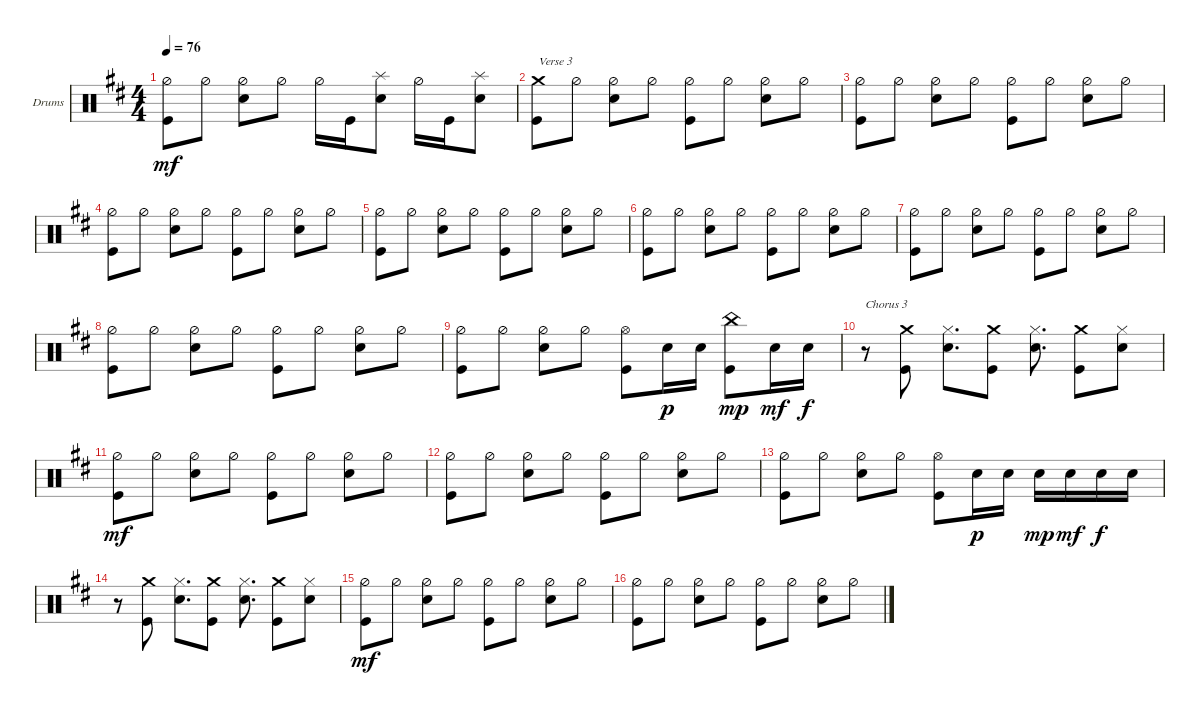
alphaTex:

\defaultSystemsLayout 4
\bracketExtendMode groupsimilarinstruments
\firstSystemTrackNameOrientation horizontal
\otherSystemsTrackNameOrientation horizontal
\track ("Drums" "Drums") {instrument percussion}
\staff {score}
\articulation defaults
\ts (4 4)
\tempo 76
\clef neutral
\ks bminor
("Hi-Hat (half)" "Kick (hit)").8{dy mf} "Hi-Hat (half)".8 ("Hi-Hat (half)" "Snare (hit) 2").8 "Hi-Hat (half)".8 "Hi-Hat (half)".16 "Kick (hit)".16 ("Snare (hit) 2" "Splash (hit)").8 "Hi-Hat (half)".16 "Kick (hit)".16 ("Snare (hit) 2" "Splash (hit)").8 |
("Kick (hit)" "Crash medium (hit)").8{txt "Verse 3"} "Hi-Hat (half)".8 ("Hi-Hat (half)" "Snare (hit) 2").8 "Hi-Hat (half)".8 ("Hi-Hat (half)" "Kick (hit)").8 "Hi-Hat (half)".8 ("Hi-Hat (half)" "Snare (hit) 2").8 "Hi-Hat (half)".8 |
("Hi-Hat (half)" "Kick (hit)").8 "Hi-Hat (half)".8 ("Hi-Hat (half)" "Snare (hit) 2").8 "Hi-Hat (half)".8 ("Hi-Hat (half)" "Kick (hit)").8 "Hi-Hat (half)".8 ("Hi-Hat (half)" "Snare (hit) 2").8 "Hi-Hat (half)".8 |
("Hi-Hat (half)" "Kick (hit)").8 "Hi-Hat (half)".8 ("Hi-Hat (half)" "Snare (hit) 2").8 "Hi-Hat (half)".8 ("Hi-Hat (half)" "Kick (hit)").8 "Hi-Hat (half)".8 ("Hi-Hat (half)" "Snare (hit) 2").8 "Hi-Hat (half)".8 |
("Hi-Hat (half)" "Kick (hit)").8 "Hi-Hat (half)".8 ("Hi-Hat (half)" "Snare (hit) 2").8 "Hi-Hat (half)".8 ("Hi-Hat (half)" "Kick (hit)").8 "Hi-Hat (half)".8 ("Hi-Hat (half)" "Snare (hit) 2").8 "Hi-Hat (half)".8 |
("Hi-Hat (half)" "Kick (hit)").8 "Hi-Hat (half)".8 ("Hi-Hat (half)" "Snare (hit) 2").8 "Hi-Hat (half)".8 ("Hi-Hat (half)" "Kick (hit)").8 "Hi-Hat (half)".8 ("Hi-Hat (half)" "Snare (hit) 2").8 "Hi-Hat (half)".8 |
("Hi-Hat (half)" "Kick (hit)").8 "Hi-Hat (half)".8 ("Hi-Hat (half)" "Snare (hit) 2").8 "Hi-Hat (half)".8 ("Hi-Hat (half)" "Kick (hit)").8 "Hi-Hat (half)".8 ("Hi-Hat (half)" "Snare (hit) 2").8 "Hi-Hat (half)".8 |
("Hi-Hat (half)" "Kick (hit)").8 "Hi-Hat (half)".8 ("Hi-Hat (half)" "Snare (hit) 2").8 "Hi-Hat (half)".8 ("Hi-Hat (half)" "Kick (hit)").8 "Hi-Hat (half)".8 ("Hi-Hat (half)" "Snare (hit) 2").8 "Hi-Hat (half)".8 |
("Hi-Hat (half)" "Kick (hit)").8 "Hi-Hat (half)".8 ("Hi-Hat (half)" "Snare (hit) 2").8 "Hi-Hat (half)".8 ("Hi-Hat (open)" "Kick (hit)").8 "Snare (hit) 2".16{dy p} "Snare (hit) 2".16 ("Kick (hit)" "China (hit)").8{dy mp} "Snare (hit) 2".16{dy mf} "Snare (hit) 2".16{dy f} |
r.8{txt "Chorus 3"} ("Kick (hit)" "Crash medium (hit)").8 ("Snare (hit) 2" "Hi-Hat (closed)").8{d} ("Kick (hit)" "Crash medium (hit)").8 ("Snare (hit) 2" "Hi-Hat (closed)").8{d} ("Kick (hit)" "Crash medium (hit)").8 ("Snare (hit) 2" "Hi-Hat (closed)").8 |
("Hi-Hat (half)" "Kick (hit)").8{dy mf} "Hi-Hat (half)".8 ("Hi-Hat (half)" "Snare (hit) 2").8 "Hi-Hat (half)".8 ("Hi-Hat (half)" "Kick (hit)").8 "Hi-Hat (half)".8 ("Hi-Hat (half)" "Snare (hit) 2").8 "Hi-Hat (half)".8 |
("Hi-Hat (half)" "Kick (hit)").8 "Hi-Hat (half)".8 ("Hi-Hat (half)" "Snare (hit) 2").8 "Hi-Hat (half)".8 ("Hi-Hat (half)" "Kick (hit)").8 "Hi-Hat (half)".8 ("Hi-Hat (half)" "Snare (hit) 2").8 "Hi-Hat (half)".8 |
("Hi-Hat (half)" "Kick (hit)").8 "Hi-Hat (half)".8 ("Hi-Hat (half)" "Snare (hit) 2").8 "Hi-Hat (half)".8 ("Hi-Hat (open)" "Kick (hit)").8 "Snare (hit) 2".16{dy p} "Snare (hit) 2".16 "Snare (hit) 2".16{dy mp} "Snare (hit) 2".16{dy mf} "Snare (hit) 2".16{dy f} "Snare (hit) 2".16 |
r.8 ("Kick (hit)" "Crash medium (hit)").8 ("Snare (hit) 2" "Hi-Hat (closed)").8{d} ("Kick (hit)" "Crash medium (hit)").8 ("Snare (hit) 2" "Hi-Hat (closed)").8{d} ("Kick (hit)" "Crash medium (hit)").8 ("Snare (hit) 2" "Hi-Hat (closed)").8 |
("Hi-Hat (half)" "Kick (hit)").8{dy mf} "Hi-Hat (half)".8 ("Hi-Hat (half)" "Snare (hit) 2").8 "Hi-Hat (half)".8 ("Hi-Hat (half)" "Kick (hit)").8 "Hi-Hat (half)".8 ("Hi-Hat (half)" "Snare (hit) 2").8 "Hi-Hat (half)".8 |
("Hi-Hat (half)" "Kick (hit)").8 "Hi-Hat (half)".8 ("Hi-Hat (half)" "Snare (hit) 2").8 "Hi-Hat (half)".8 ("Hi-Hat (half)" "Kick (hit)").8 "Hi-Hat (half)".8 ("Hi-Hat (half)" "Snare (hit) 2").8 "Hi-Hat (half)".8
